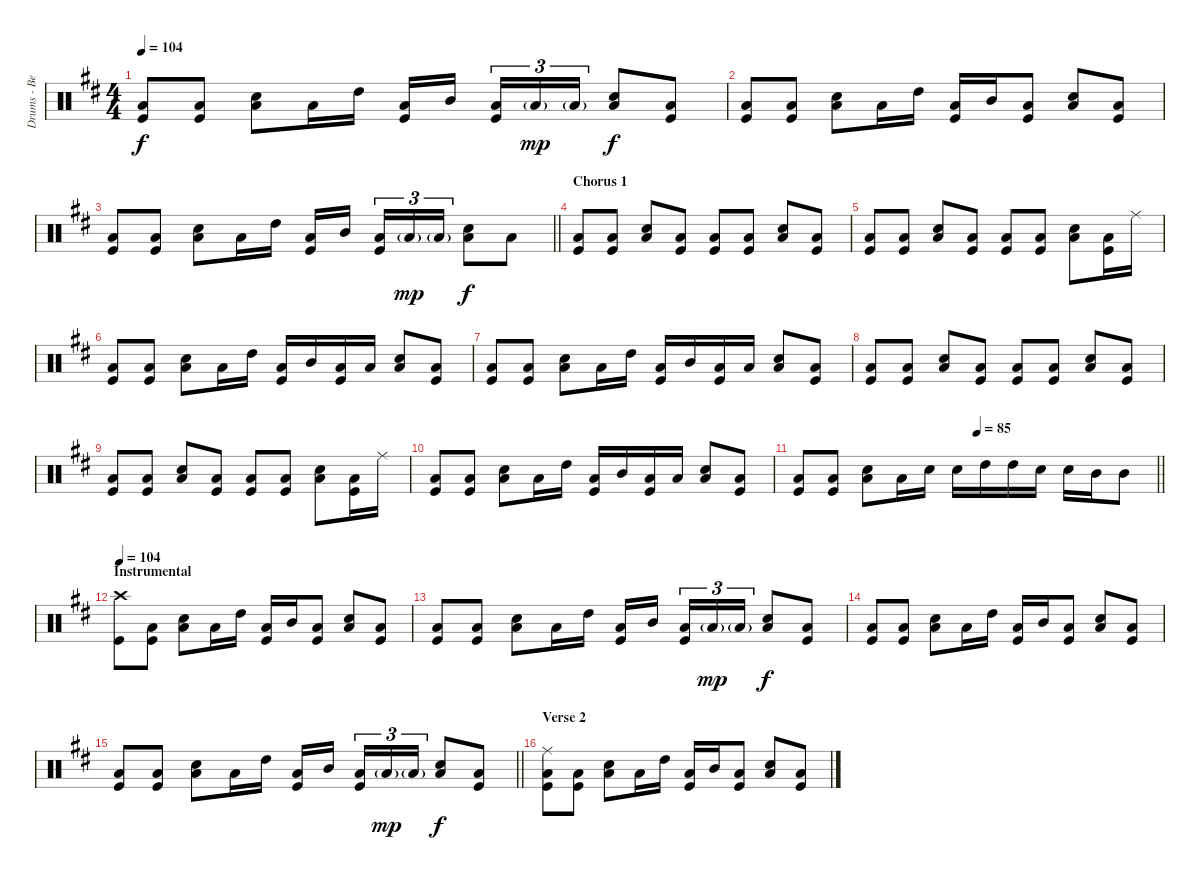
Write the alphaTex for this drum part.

\track ("Drums - Ben Johnston" "Drums - Be") {instrument percussion}
\staff {score}
\articulation defaults
\ts (4 4)
\tempo 104
\clef neutral
\ks d
("Low Tom (hit)" "Kick (hit)").8{dy f} ("Low Tom (hit)" "Kick (hit)").8 ("Low Tom (hit)" "Snare (hit) 2").8 "Low Tom (hit)".16 "High Tom (hit)".16 ("Low Tom (hit)" "Kick (hit)").16 "Mid Tom (hit)".16{beam splitsecondary} ("Low Tom (hit)" "Kick (hit)").16{tu (3 2)} "Low Tom (hit)"{g}.16{tu (3 2) dy mp} "Low Tom (hit)"{g}.16{tu (3 2)} ("Low Tom (hit)" "Snare (hit) 2").8{dy f} ("Low Tom (hit)" "Kick (hit)").8 |
("Low Tom (hit)" "Kick (hit)").8 ("Low Tom (hit)" "Kick (hit)").8 ("Low Tom (hit)" "Snare (hit) 2").8 "Low Tom (hit)".16 "High Tom (hit)".16 ("Low Tom (hit)" "Kick (hit)").16 "Mid Tom (hit)".16 ("Low Tom (hit)" "Kick (hit)").8 ("Low Tom (hit)" "Snare (hit) 2").8 ("Low Tom (hit)" "Kick (hit)").8 |
\barLineRight lightlight
("Low Tom (hit)" "Kick (hit)").8 ("Low Tom (hit)" "Kick (hit)").8 ("Low Tom (hit)" "Snare (hit) 2").8 "Low Tom (hit)".16 "High Tom (hit)".16 ("Low Tom (hit)" "Kick (hit)").16 "Mid Tom (hit)".16{beam splitsecondary} ("Low Tom (hit)" "Kick (hit)").16{tu (3 2)} "Low Tom (hit)"{g}.16{tu (3 2) dy mp} "Low Tom (hit)"{g}.16{tu (3 2)} ("Low Tom (hit)" "Snare (hit) 2").8{dy f} "Low Tom (hit)".8 |
\section ("" "Chorus 1")
("Low Tom (hit)" "Kick (hit)").8 ("Low Tom (hit)" "Kick (hit)").8 ("Low Tom (hit)" "Snare (hit) 2").8 ("Low Tom (hit)" "Kick (hit)").8 ("Low Tom (hit)" "Kick (hit)").8 ("Low Tom (hit)" "Kick (hit)").8 ("Low Tom (hit)" "Snare (hit) 2").8 ("Low Tom (hit)" "Kick (hit)").8 |
("Low Tom (hit)" "Kick (hit)").8 ("Low Tom (hit)" "Kick (hit)").8 ("Low Tom (hit)" "Snare (hit) 2").8 ("Low Tom (hit)" "Kick (hit)").8 ("Low Tom (hit)" "Kick (hit)").8 ("Low Tom (hit)" "Kick (hit)").8 ("Low Tom (hit)" "Snare (hit) 2").8 ("Low Tom (hit)" "Kick (hit)").16 "Ride (middle)".16 |
("Low Tom (hit)" "Kick (hit)").8 ("Low Tom (hit)" "Kick (hit)").8 ("Low Tom (hit)" "Snare (hit) 2").8 "Low Tom (hit)".16 "High Tom (hit)".16 ("Low Tom (hit)" "Kick (hit)").16 "Mid Tom (hit)".16 ("Low Tom (hit)" "Kick (hit)").16 "Low Tom (hit)".16 ("Low Tom (hit)" "Snare (hit) 2").8 ("Low Tom (hit)" "Kick (hit)").8 |
("Low Tom (hit)" "Kick (hit)").8 ("Low Tom (hit)" "Kick (hit)").8 ("Low Tom (hit)" "Snare (hit) 2").8 "Low Tom (hit)".16 "High Tom (hit)".16 ("Low Tom (hit)" "Kick (hit)").16 "Mid Tom (hit)".16 ("Low Tom (hit)" "Kick (hit)").16 "Low Tom (hit)".16 ("Low Tom (hit)" "Snare (hit) 2").8 ("Low Tom (hit)" "Kick (hit)").8 |
("Low Tom (hit)" "Kick (hit)").8 ("Low Tom (hit)" "Kick (hit)").8 ("Low Tom (hit)" "Snare (hit) 2").8 ("Low Tom (hit)" "Kick (hit)").8 ("Low Tom (hit)" "Kick (hit)").8 ("Low Tom (hit)" "Kick (hit)").8 ("Low Tom (hit)" "Snare (hit) 2").8 ("Low Tom (hit)" "Kick (hit)").8 |
("Low Tom (hit)" "Kick (hit)").8 ("Low Tom (hit)" "Kick (hit)").8 ("Low Tom (hit)" "Snare (hit) 2").8 ("Low Tom (hit)" "Kick (hit)").8 ("Low Tom (hit)" "Kick (hit)").8 ("Low Tom (hit)" "Kick (hit)").8 ("Low Tom (hit)" "Snare (hit) 2").8 ("Low Tom (hit)" "Kick (hit)").16 "Ride (middle)".16 |
("Low Tom (hit)" "Kick (hit)").8 ("Low Tom (hit)" "Kick (hit)").8 ("Low Tom (hit)" "Snare (hit) 2").8 "Low Tom (hit)".16 "High Tom (hit)".16 ("Low Tom (hit)" "Kick (hit)").16 "Mid Tom (hit)".16 ("Low Tom (hit)" "Kick (hit)").16 "Low Tom (hit)".16 ("Low Tom (hit)" "Snare (hit) 2").8 ("Low Tom (hit)" "Kick (hit)").8 |
\tempo (85 0.5)
\barLineRight lightlight
("Low Tom (hit)" "Kick (hit)").8 ("Low Tom (hit)" "Kick (hit)").8 ("Low Tom (hit)" "Snare (hit) 2").8 "Low Tom (hit)".16 "Snare (hit) 2".16 "Snare (hit) 2".16 "High Tom (hit)".16 "High Tom (hit)".16 "Snare (hit) 2".16 "Snare (hit) 2".16 "Mid Tom (hit)".16 "Mid Tom (hit)".8 |
\section ("" "Instrumental")
\tempo 104
("Crash high (hit)" "Kick (hit)").8 ("Low Tom (hit)" "Kick (hit)").8 ("Low Tom (hit)" "Snare (hit) 2").8 "Low Tom (hit)".16 "High Tom (hit)".16 ("Low Tom (hit)" "Kick (hit)").16 "Mid Tom (hit)".16 ("Low Tom (hit)" "Kick (hit)").8 ("Low Tom (hit)" "Snare (hit) 2").8 ("Low Tom (hit)" "Kick (hit)").8 |
("Low Tom (hit)" "Kick (hit)").8 ("Low Tom (hit)" "Kick (hit)").8 ("Low Tom (hit)" "Snare (hit) 2").8 "Low Tom (hit)".16 "High Tom (hit)".16 ("Low Tom (hit)" "Kick (hit)").16 "Mid Tom (hit)".16{beam splitsecondary} ("Low Tom (hit)" "Kick (hit)").16{tu (3 2)} "Low Tom (hit)"{g}.16{tu (3 2) dy mp} "Low Tom (hit)"{g}.16{tu (3 2)} ("Low Tom (hit)" "Snare (hit) 2").8{dy f} ("Low Tom (hit)" "Kick (hit)").8 |
("Low Tom (hit)" "Kick (hit)").8 ("Low Tom (hit)" "Kick (hit)").8 ("Low Tom (hit)" "Snare (hit) 2").8 "Low Tom (hit)".16 "High Tom (hit)".16 ("Low Tom (hit)" "Kick (hit)").16 "Mid Tom (hit)".16 ("Low Tom (hit)" "Kick (hit)").8 ("Low Tom (hit)" "Snare (hit) 2").8 ("Low Tom (hit)" "Kick (hit)").8 |
\barLineRight lightlight
("Low Tom (hit)" "Kick (hit)").8 ("Low Tom (hit)" "Kick (hit)").8 ("Low Tom (hit)" "Snare (hit) 2").8 "Low Tom (hit)".16 "High Tom (hit)".16 ("Low Tom (hit)" "Kick (hit)").16 "Mid Tom (hit)".16{beam splitsecondary} ("Low Tom (hit)" "Kick (hit)").16{tu (3 2)} "Low Tom (hit)"{g}.16{tu (3 2) dy mp} "Low Tom (hit)"{g}.16{tu (3 2)} ("Low Tom (hit)" "Snare (hit) 2").8{dy f} ("Low Tom (hit)" "Kick (hit)").8 |
\section ("" "Verse 2")
("Ride (middle)" "Low Tom (hit)" "Kick (hit)").8 ("Low Tom (hit)" "Kick (hit)").8 ("Low Tom (hit)" "Snare (hit) 2").8 "Low Tom (hit)".16 "High Tom (hit)".16 ("Low Tom (hit)" "Kick (hit)").16 "Mid Tom (hit)".16 ("Low Tom (hit)" "Kick (hit)").8 ("Low Tom (hit)" "Snare (hit) 2").8 ("Low Tom (hit)" "Kick (hit)").8
